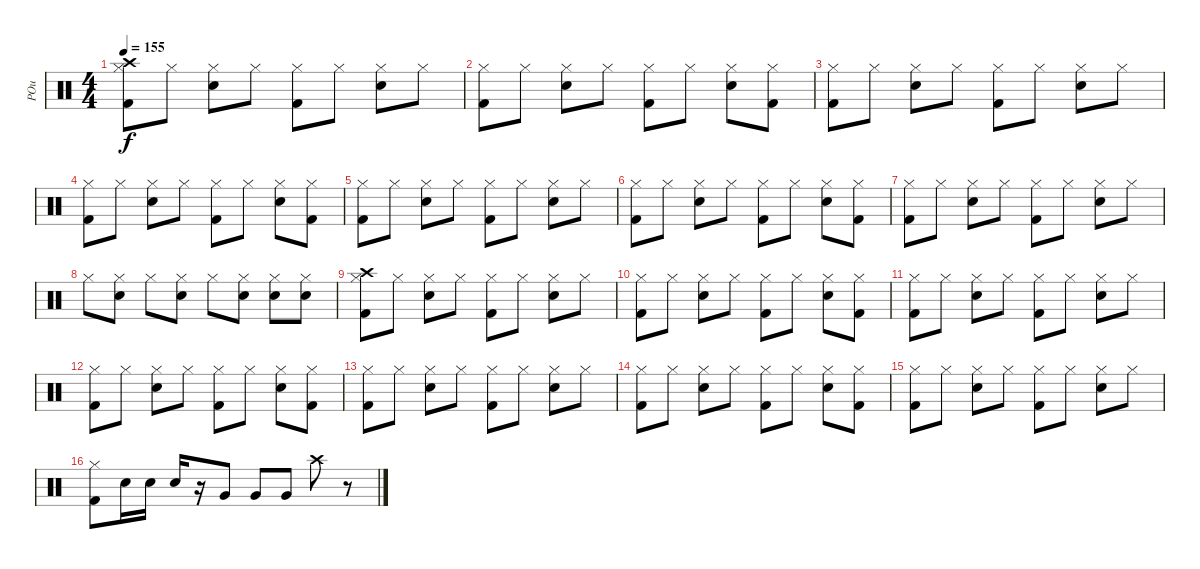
\track ("POu" "POu") {instrument percussion}
\staff {score}
\articulation defaults
\ts (4 4)
\tempo 155
\clef neutral
\ks c
("Crash high (hit)" "Kick (hit) 2" "Hi-Hat (closed)").8{dy f} "Hi-Hat (closed)".8 ("Electric Snare (hit)" "Hi-Hat (closed)").8 "Hi-Hat (closed)".8 ("Kick (hit) 2" "Hi-Hat (closed)").8 "Hi-Hat (closed)".8 ("Electric Snare (hit)" "Hi-Hat (closed)").8 "Hi-Hat (closed)".8 |
("Kick (hit) 2" "Hi-Hat (closed)").8 "Hi-Hat (closed)".8 ("Electric Snare (hit)" "Hi-Hat (closed)").8 "Hi-Hat (closed)".8 ("Kick (hit) 2" "Hi-Hat (closed)").8 "Hi-Hat (closed)".8 ("Electric Snare (hit)" "Hi-Hat (closed)").8 ("Kick (hit) 2" "Hi-Hat (closed)").8 |
("Kick (hit) 2" "Hi-Hat (closed)").8 "Hi-Hat (closed)".8 ("Electric Snare (hit)" "Hi-Hat (closed)").8 "Hi-Hat (closed)".8 ("Kick (hit) 2" "Hi-Hat (closed)").8 "Hi-Hat (closed)".8 ("Electric Snare (hit)" "Hi-Hat (closed)").8 "Hi-Hat (closed)".8 |
("Kick (hit) 2" "Hi-Hat (closed)").8 "Hi-Hat (closed)".8 ("Electric Snare (hit)" "Hi-Hat (closed)").8 "Hi-Hat (closed)".8 ("Kick (hit) 2" "Hi-Hat (closed)").8 "Hi-Hat (closed)".8 ("Electric Snare (hit)" "Hi-Hat (closed)").8 ("Kick (hit) 2" "Hi-Hat (closed)").8 |
("Kick (hit) 2" "Hi-Hat (closed)").8 "Hi-Hat (closed)".8 ("Electric Snare (hit)" "Hi-Hat (closed)").8 "Hi-Hat (closed)".8 ("Kick (hit) 2" "Hi-Hat (closed)").8 "Hi-Hat (closed)".8 ("Electric Snare (hit)" "Hi-Hat (closed)").8 "Hi-Hat (closed)".8 |
("Kick (hit) 2" "Hi-Hat (closed)").8 "Hi-Hat (closed)".8 ("Electric Snare (hit)" "Hi-Hat (closed)").8 "Hi-Hat (closed)".8 ("Kick (hit) 2" "Hi-Hat (closed)").8 "Hi-Hat (closed)".8 ("Electric Snare (hit)" "Hi-Hat (closed)").8 ("Kick (hit) 2" "Hi-Hat (closed)").8 |
("Kick (hit) 2" "Hi-Hat (closed)").8 "Hi-Hat (closed)".8 ("Electric Snare (hit)" "Hi-Hat (closed)").8 "Hi-Hat (closed)".8 ("Kick (hit) 2" "Hi-Hat (closed)").8 "Hi-Hat (closed)".8 ("Electric Snare (hit)" "Hi-Hat (closed)").8 "Hi-Hat (closed)".8 |
"Hi-Hat (closed)".8 ("Electric Snare (hit)" "Hi-Hat (closed)").8 "Hi-Hat (closed)".8 ("Electric Snare (hit)" "Hi-Hat (closed)").8 "Hi-Hat (closed)".8 ("Electric Snare (hit)" "Hi-Hat (closed)").8 ("Electric Snare (hit)" "Hi-Hat (closed)").8 ("Electric Snare (hit)" "Hi-Hat (closed)").8 |
("Crash high (hit)" "Kick (hit) 2" "Hi-Hat (closed)").8 "Hi-Hat (closed)".8 ("Electric Snare (hit)" "Hi-Hat (closed)").8 "Hi-Hat (closed)".8 ("Kick (hit) 2" "Hi-Hat (closed)").8 "Hi-Hat (closed)".8 ("Electric Snare (hit)" "Hi-Hat (closed)").8 "Hi-Hat (closed)".8 |
("Kick (hit) 2" "Hi-Hat (closed)").8 "Hi-Hat (closed)".8 ("Electric Snare (hit)" "Hi-Hat (closed)").8 "Hi-Hat (closed)".8 ("Kick (hit) 2" "Hi-Hat (closed)").8 "Hi-Hat (closed)".8 ("Electric Snare (hit)" "Hi-Hat (closed)").8 ("Kick (hit) 2" "Hi-Hat (closed)").8 |
("Kick (hit) 2" "Hi-Hat (closed)").8 "Hi-Hat (closed)".8 ("Electric Snare (hit)" "Hi-Hat (closed)").8 "Hi-Hat (closed)".8 ("Kick (hit) 2" "Hi-Hat (closed)").8 "Hi-Hat (closed)".8 ("Electric Snare (hit)" "Hi-Hat (closed)").8 "Hi-Hat (closed)".8 |
("Kick (hit) 2" "Hi-Hat (closed)").8 "Hi-Hat (closed)".8 ("Electric Snare (hit)" "Hi-Hat (closed)").8 "Hi-Hat (closed)".8 ("Kick (hit) 2" "Hi-Hat (closed)").8 "Hi-Hat (closed)".8 ("Electric Snare (hit)" "Hi-Hat (closed)").8 ("Kick (hit) 2" "Hi-Hat (closed)").8 |
("Kick (hit) 2" "Hi-Hat (closed)").8 "Hi-Hat (closed)".8 ("Electric Snare (hit)" "Hi-Hat (closed)").8 "Hi-Hat (closed)".8 ("Kick (hit) 2" "Hi-Hat (closed)").8 "Hi-Hat (closed)".8 ("Electric Snare (hit)" "Hi-Hat (closed)").8 "Hi-Hat (closed)".8 |
("Kick (hit) 2" "Hi-Hat (closed)").8 "Hi-Hat (closed)".8 ("Electric Snare (hit)" "Hi-Hat (closed)").8 "Hi-Hat (closed)".8 ("Kick (hit) 2" "Hi-Hat (closed)").8 "Hi-Hat (closed)".8 ("Electric Snare (hit)" "Hi-Hat (closed)").8 ("Kick (hit) 2" "Hi-Hat (closed)").8 |
("Kick (hit) 2" "Hi-Hat (closed)").8 "Hi-Hat (closed)".8 ("Electric Snare (hit)" "Hi-Hat (closed)").8 "Hi-Hat (closed)".8 ("Kick (hit) 2" "Hi-Hat (closed)").8 "Hi-Hat (closed)".8 ("Electric Snare (hit)" "Hi-Hat (closed)").8 "Hi-Hat (closed)".8 |
("Kick (hit) 2" "Hi-Hat (closed)").8 "Electric Snare (hit)".16 "Electric Snare (hit)".16 "Electric Snare (hit)".16 r.16 "Very Low Tom (hit)".8 "Very Low Tom (hit)".8 "Very Low Tom (hit)".8 "Crash high (hit)".8 r.8
